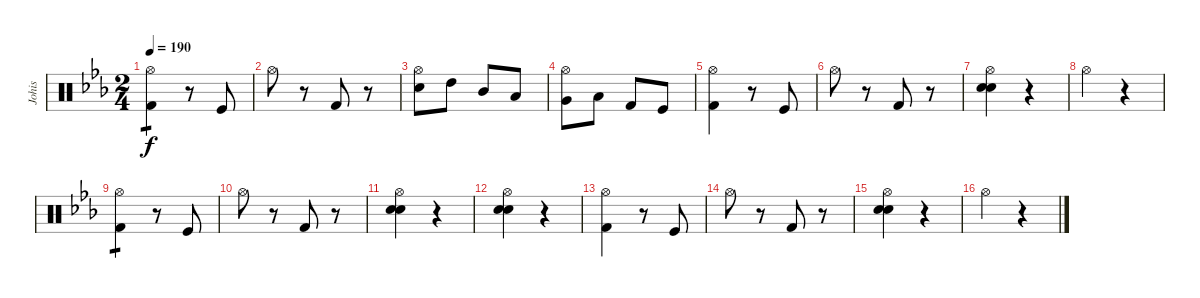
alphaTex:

\track ("Johis" "Johis") {instrument percussion}
\staff {score}
\articulation defaults
\ts (2 4)
\tempo 190
\clef neutral
\ks eb
("Hi-Hat (open)" "Kick (hit) 2").4{tp 1 dy f} r.8 "Kick (hit)".8 |
"Hi-Hat (open)".8 r.8 "Kick (hit) 2".8 r.8 |
("Hi-Hat (open)" "Snare (hit) 2").8 "High Tom (hit)".8 "Mid Tom (hit)".8 "Low Tom (hit)".8 |
("Hi-Hat (open)" "Very Low Tom (hit)").8 "Low Floor Tom (hit)".8 "Kick (hit) 2".8 "Kick (hit)".8 |
("Hi-Hat (open)" "Kick (hit) 2").4 r.8 "Kick (hit)".8 |
"Hi-Hat (open)".8 r.8 "Kick (hit) 2".8 r.8 |
("Hi-Hat (open)" "Snare (hit) 2" "Electric Snare (hit)").4 r.4 |
"Hi-Hat (open)".4 r.4 |
("Hi-Hat (open)" "Kick (hit) 2").4{tp 1} r.8 "Kick (hit)".8 |
"Hi-Hat (open)".8 r.8 "Kick (hit) 2".8 r.8 |
("Hi-Hat (open)" "Snare (hit) 2" "Electric Snare (hit)").4 r.4 |
("Hi-Hat (open)" "Snare (hit) 2" "Electric Snare (hit)").4 r.4 |
("Hi-Hat (open)" "Kick (hit) 2").4 r.8 "Kick (hit)".8 |
"Hi-Hat (open)".8 r.8 "Kick (hit) 2".8 r.8 |
("Hi-Hat (open)" "Snare (hit) 2" "Electric Snare (hit)").4 r.4 |
"Hi-Hat (open)".4 r.4
